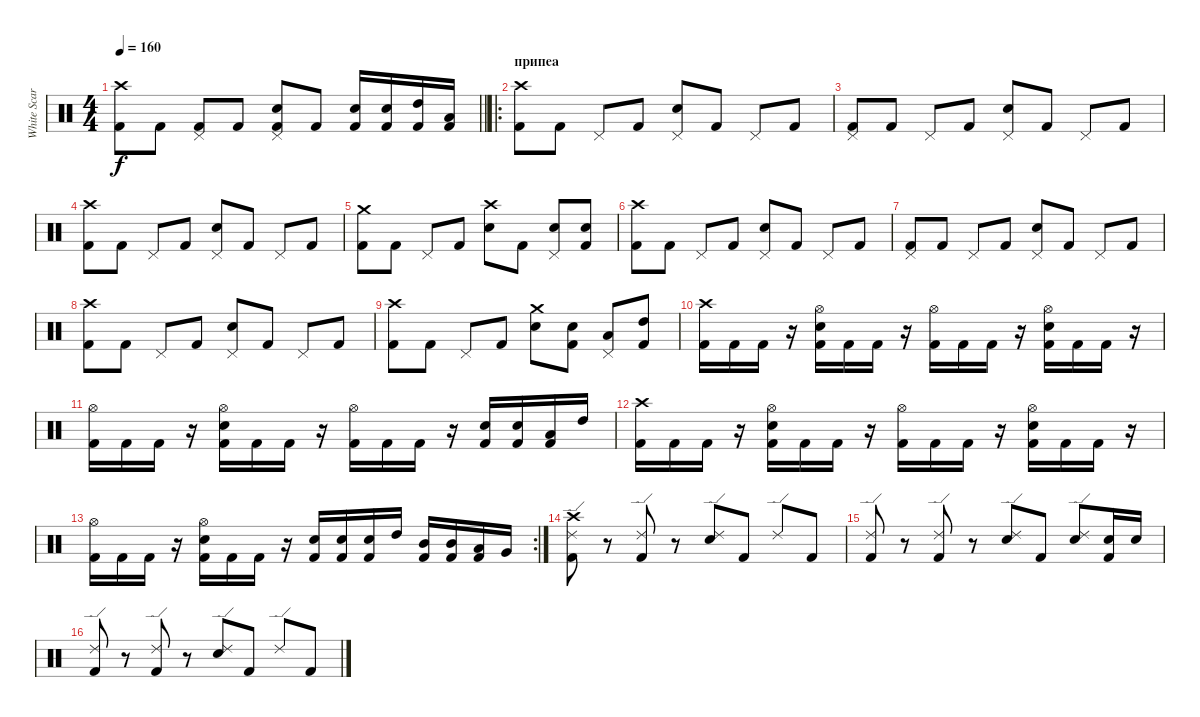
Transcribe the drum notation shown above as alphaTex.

\track ("White Scar" "White Scar") {instrument percussion}
\staff {score}
\articulation defaults
\ts (4 4)
\tempo 160
\clef neutral
\barLineRight lightlight
\ks c
("Crash high (hit)" "Kick (hit) 2").8{dy f} "Kick (hit) 2".8 ("Pedal Hi-Hat (hit)" "Kick (hit) 2").8 "Kick (hit) 2".8 ("Pedal Hi-Hat (hit)" "Snare (hit) 2" "Kick (hit) 2").8 "Kick (hit) 2".8 ("Snare (hit) 2" "Kick (hit) 2").16 ("Snare (hit) 2" "Kick (hit) 2").16 ("High Tom (hit)" "Kick (hit) 2").16 ("Low Tom (hit)" "Kick (hit) 2").16 |
\ro
\section ("" "припеа")
("Crash high (hit)" "Kick (hit) 2").8 "Kick (hit) 2".8 "Pedal Hi-Hat (hit)".8 "Kick (hit) 2".8 ("Pedal Hi-Hat (hit)" "Snare (hit) 2").8 "Kick (hit) 2".8 "Pedal Hi-Hat (hit)".8 "Kick (hit) 2".8 |
("Pedal Hi-Hat (hit)" "Kick (hit) 2").8 "Kick (hit) 2".8 "Pedal Hi-Hat (hit)".8 "Kick (hit) 2".8 ("Pedal Hi-Hat (hit)" "Snare (hit) 2").8 "Kick (hit) 2".8 "Pedal Hi-Hat (hit)".8 "Kick (hit) 2".8 |
("Crash high (hit)" "Kick (hit) 2").8 "Kick (hit) 2".8 "Pedal Hi-Hat (hit)".8 "Kick (hit) 2".8 ("Pedal Hi-Hat (hit)" "Snare (hit) 2").8 "Kick (hit) 2".8 "Pedal Hi-Hat (hit)".8 "Kick (hit) 2".8 |
("Crash medium (hit)" "Kick (hit) 2").8 "Kick (hit) 2".8 "Pedal Hi-Hat (hit)".8 "Kick (hit) 2".8 ("Crash high (hit)" "Snare (hit) 2").8 "Kick (hit) 2".8 ("Pedal Hi-Hat (hit)" "Snare (hit) 2").8 ("Snare (hit) 2" "Kick (hit) 2").8 |
("Crash high (hit)" "Kick (hit) 2").8 "Kick (hit) 2".8 "Pedal Hi-Hat (hit)".8 "Kick (hit) 2".8 ("Pedal Hi-Hat (hit)" "Snare (hit) 2").8 "Kick (hit) 2".8 "Pedal Hi-Hat (hit)".8 "Kick (hit) 2".8 |
("Pedal Hi-Hat (hit)" "Kick (hit) 2").8 "Kick (hit) 2".8 "Pedal Hi-Hat (hit)".8 "Kick (hit) 2".8 ("Pedal Hi-Hat (hit)" "Snare (hit) 2").8 "Kick (hit) 2".8 "Pedal Hi-Hat (hit)".8 "Kick (hit) 2".8 |
("Crash high (hit)" "Kick (hit) 2").8 "Kick (hit) 2".8 "Pedal Hi-Hat (hit)".8 "Kick (hit) 2".8 ("Pedal Hi-Hat (hit)" "Snare (hit) 2").8 "Kick (hit) 2".8 "Pedal Hi-Hat (hit)".8 "Kick (hit) 2".8 |
("Crash high (hit)" "Kick (hit) 2").8 "Kick (hit) 2".8 "Pedal Hi-Hat (hit)".8 "Kick (hit) 2".8 ("Crash medium (hit)" "Snare (hit) 2").8 ("Snare (hit) 2" "Kick (hit) 2").8 ("Pedal Hi-Hat (hit)" "Low Tom (hit)").8 ("High Tom (hit)" "Kick (hit) 2").8 |
("Crash high (hit)" "Kick (hit) 2").16 "Kick (hit) 2".16 "Kick (hit) 2".16 r.16 ("Snare (hit) 2" "Hi-Hat (open)" "Kick (hit) 2").16 "Kick (hit) 2".16 "Kick (hit) 2".16 r.16 ("Hi-Hat (open)" "Kick (hit) 2").16 "Kick (hit) 2".16 "Kick (hit) 2".16 r.16 ("Snare (hit) 2" "Hi-Hat (open)" "Kick (hit) 2").16 "Kick (hit) 2".16 "Kick (hit) 2".16 r.16 |
("Hi-Hat (open)" "Kick (hit) 2").16 "Kick (hit) 2".16 "Kick (hit) 2".16 r.16 ("Snare (hit) 2" "Hi-Hat (open)" "Kick (hit) 2").16 "Kick (hit) 2".16 "Kick (hit) 2".16 r.16 ("Hi-Hat (open)" "Kick (hit) 2").16 "Kick (hit) 2".16 "Kick (hit) 2".16 r.16 ("Snare (hit) 2" "Kick (hit) 2").16 ("Snare (hit) 2" "Kick (hit) 2").16 ("Low Tom (hit)" "Kick (hit) 2").16 "High Tom (hit)".16 |
("Crash high (hit)" "Kick (hit) 2").16 "Kick (hit) 2".16 "Kick (hit) 2".16 r.16 ("Snare (hit) 2" "Hi-Hat (open)" "Kick (hit) 2").16 "Kick (hit) 2".16 "Kick (hit) 2".16 r.16 ("Hi-Hat (open)" "Kick (hit) 2").16 "Kick (hit) 2".16 "Kick (hit) 2".16 r.16 ("Snare (hit) 2" "Hi-Hat (open)" "Kick (hit) 2").16 "Kick (hit) 2".16 "Kick (hit) 2".16 r.16 |
\rc 2
("Hi-Hat (open)" "Kick (hit) 2").16 "Kick (hit) 2".16 "Kick (hit) 2".16 r.16 ("Snare (hit) 2" "Hi-Hat (open)" "Kick (hit) 2").16 "Kick (hit) 2".16 "Kick (hit) 2".16 r.16 ("Snare (hit) 2" "Kick (hit) 2").16 ("Snare (hit) 2" "Kick (hit) 2").16 ("Snare (hit) 2" "Kick (hit) 2").16 "High Tom (hit)".16 ("Mid Tom (hit)" "Kick (hit) 2").16 ("Mid Tom (hit)" "Kick (hit) 2").16 ("Low Tom (hit)" "Kick (hit) 2").16 "Very Low Tom (hit)".16 |
("Crash high (hit)" "Ride (edge) 2" "Kick (hit) 2").8 r.8 ("Ride (edge) 2" "Kick (hit) 2").8 r.8 ("Snare (hit) 2" "Ride (edge) 2").8 "Kick (hit) 2".8 "Ride (edge) 2".8 "Kick (hit) 2".8 |
("Ride (edge) 2" "Kick (hit) 2").8 r.8 ("Ride (edge) 2" "Kick (hit) 2").8 r.8 ("Snare (hit) 2" "Ride (edge) 2").8 "Kick (hit) 2".8 ("Snare (hit) 2" "Ride (edge) 2").8 ("Snare (hit) 2" "Kick (hit) 2").16 "Snare (hit) 2".16 |
("Ride (edge) 2" "Kick (hit) 2").8 r.8 ("Ride (edge) 2" "Kick (hit) 2").8 r.8 ("Snare (hit) 2" "Ride (edge) 2").8 "Kick (hit) 2".8 "Ride (edge) 2".8 "Kick (hit) 2".8
